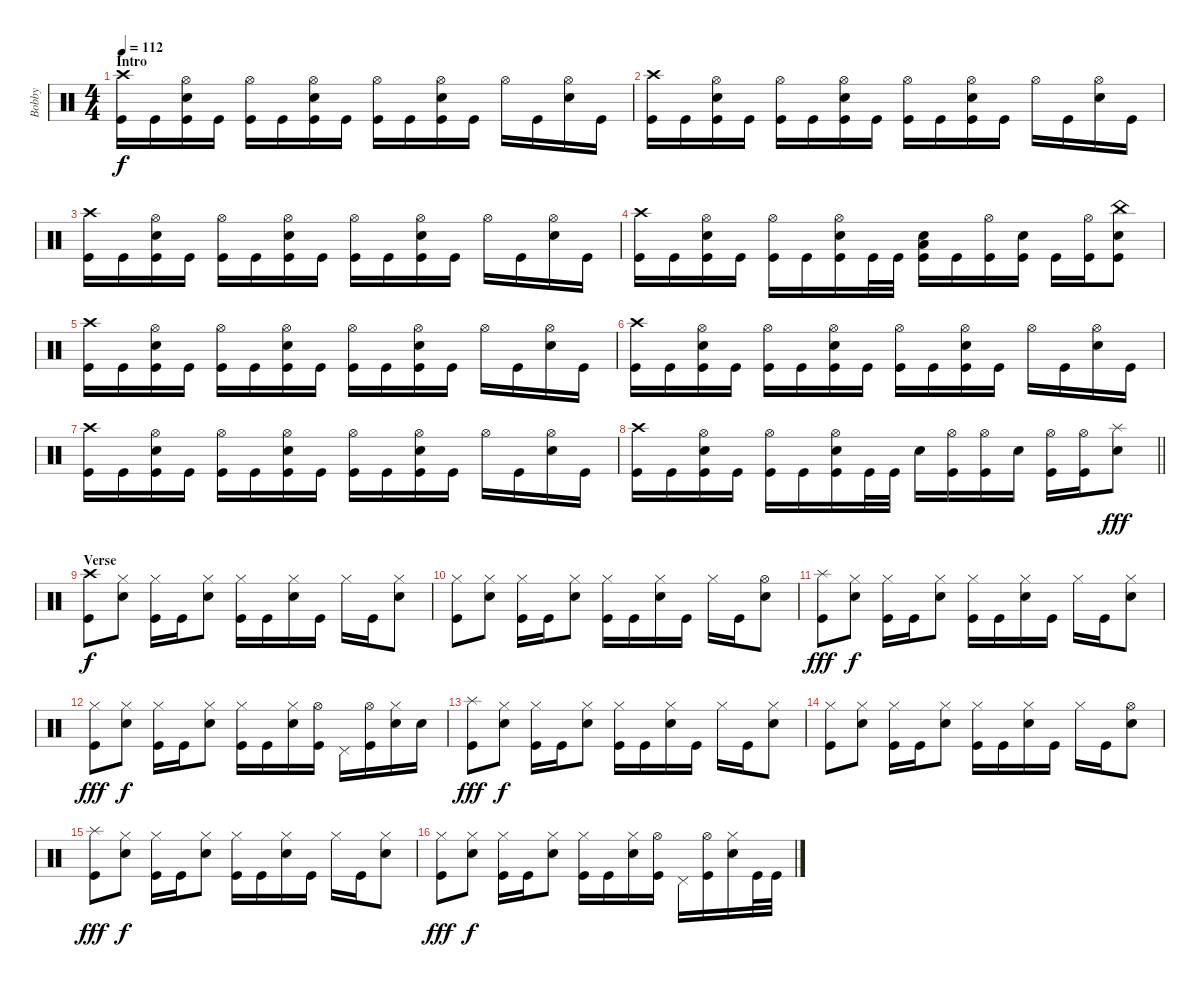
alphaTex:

\track ("Bobby" "Bobby") {instrument percussion}
\staff {score}
\articulation defaults
\ts (4 4)
\section ("" "Intro")
\tempo 112
\clef neutral
\ks c
("Crash high (hit)" "Kick (hit)").16{dy f} "Kick (hit)".16 ("Hi-Hat (open)" "Electric Snare (hit)" "Kick (hit)").16 "Kick (hit)".16 ("Hi-Hat (open)" "Kick (hit)").16 "Kick (hit)".16 ("Hi-Hat (open)" "Electric Snare (hit)" "Kick (hit)").16 "Kick (hit)".16 ("Hi-Hat (open)" "Kick (hit)").16 "Kick (hit)".16 ("Hi-Hat (open)" "Electric Snare (hit)" "Kick (hit)").16 "Kick (hit)".16 "Hi-Hat (open)".16 "Kick (hit)".16 ("Hi-Hat (open)" "Electric Snare (hit)").16 "Kick (hit)".16 |
("Crash high (hit)" "Kick (hit)").16 "Kick (hit)".16 ("Hi-Hat (open)" "Electric Snare (hit)" "Kick (hit)").16 "Kick (hit)".16 ("Hi-Hat (open)" "Kick (hit)").16 "Kick (hit)".16 ("Hi-Hat (open)" "Electric Snare (hit)" "Kick (hit)").16 "Kick (hit)".16 ("Hi-Hat (open)" "Kick (hit)").16 "Kick (hit)".16 ("Hi-Hat (open)" "Electric Snare (hit)" "Kick (hit)").16 "Kick (hit)".16 "Hi-Hat (open)".16 "Kick (hit)".16 ("Hi-Hat (open)" "Electric Snare (hit)").16 "Kick (hit)".16 |
("Crash high (hit)" "Kick (hit)").16 "Kick (hit)".16 ("Hi-Hat (open)" "Electric Snare (hit)" "Kick (hit)").16 "Kick (hit)".16 ("Hi-Hat (open)" "Kick (hit)").16 "Kick (hit)".16 ("Hi-Hat (open)" "Electric Snare (hit)" "Kick (hit)").16 "Kick (hit)".16 ("Hi-Hat (open)" "Kick (hit)").16 "Kick (hit)".16 ("Hi-Hat (open)" "Electric Snare (hit)" "Kick (hit)").16 "Kick (hit)".16 "Hi-Hat (open)".16 "Kick (hit)".16 ("Hi-Hat (open)" "Electric Snare (hit)").16 "Kick (hit)".16 |
("Crash high (hit)" "Kick (hit)").16 "Kick (hit)".16 ("Hi-Hat (open)" "Electric Snare (hit)" "Kick (hit)").16 "Kick (hit)".16 ("Hi-Hat (open)" "Kick (hit)").16 "Kick (hit)".16 ("Hi-Hat (open)" "Electric Snare (hit)" "Kick (hit)").16 "Kick (hit)".32 "Kick (hit)".32 ("Low Tom (hit)" "Electric Snare (hit)" "Kick (hit)").16 "Kick (hit)".16 ("Hi-Hat (open)" "Kick (hit)").16 ("Electric Snare (hit)" "Kick (hit)").16 "Kick (hit)".16 ("Hi-Hat (open)" "Kick (hit)").16 ("China (hit)" "Electric Snare (hit)" "Kick (hit)").8 |
("Crash high (hit)" "Kick (hit)").16 "Kick (hit)".16 ("Hi-Hat (open)" "Electric Snare (hit)" "Kick (hit)").16 "Kick (hit)".16 ("Hi-Hat (open)" "Kick (hit)").16 "Kick (hit)".16 ("Hi-Hat (open)" "Electric Snare (hit)" "Kick (hit)").16 "Kick (hit)".16 ("Hi-Hat (open)" "Kick (hit)").16 "Kick (hit)".16 ("Hi-Hat (open)" "Electric Snare (hit)" "Kick (hit)").16 "Kick (hit)".16 "Hi-Hat (open)".16 "Kick (hit)".16 ("Hi-Hat (open)" "Electric Snare (hit)").16 "Kick (hit)".16 |
("Crash high (hit)" "Kick (hit)").16 "Kick (hit)".16 ("Hi-Hat (open)" "Electric Snare (hit)" "Kick (hit)").16 "Kick (hit)".16 ("Hi-Hat (open)" "Kick (hit)").16 "Kick (hit)".16 ("Hi-Hat (open)" "Electric Snare (hit)" "Kick (hit)").16 "Kick (hit)".16 ("Hi-Hat (open)" "Kick (hit)").16 "Kick (hit)".16 ("Hi-Hat (open)" "Electric Snare (hit)" "Kick (hit)").16 "Kick (hit)".16 "Hi-Hat (open)".16 "Kick (hit)".16 ("Hi-Hat (open)" "Electric Snare (hit)").16 "Kick (hit)".16 |
("Crash high (hit)" "Kick (hit)").16 "Kick (hit)".16 ("Hi-Hat (open)" "Electric Snare (hit)" "Kick (hit)").16 "Kick (hit)".16 ("Hi-Hat (open)" "Kick (hit)").16 "Kick (hit)".16 ("Hi-Hat (open)" "Electric Snare (hit)" "Kick (hit)").16 "Kick (hit)".16 ("Hi-Hat (open)" "Kick (hit)").16 "Kick (hit)".16 ("Hi-Hat (open)" "Electric Snare (hit)" "Kick (hit)").16 "Kick (hit)".16 "Hi-Hat (open)".16 "Kick (hit)".16 ("Hi-Hat (open)" "Electric Snare (hit)").16 "Kick (hit)".16 |
\barLineRight lightlight
("Crash high (hit)" "Kick (hit)").16 "Kick (hit)".16 ("Hi-Hat (open)" "Electric Snare (hit)" "Kick (hit)").16 "Kick (hit)".16 ("Hi-Hat (open)" "Kick (hit)").16 "Kick (hit)".16 ("Hi-Hat (open)" "Electric Snare (hit)" "Kick (hit)").16 "Kick (hit)".32 "Kick (hit)".32 "Electric Snare (hit)".16 ("Hi-Hat (open)" "Kick (hit)").16 ("Hi-Hat (open)" "Kick (hit)").16 "Electric Snare (hit)".16 ("Hi-Hat (open)" "Kick (hit)").16 ("Hi-Hat (open)" "Kick (hit)").16 ("Splash (hit)" "Electric Snare (hit)").8{dy fff} |
\section ("" "Verse")
("Crash high (hit)" "Kick (hit)").8{dy f} ("Hi-Hat (closed)" "Electric Snare (hit)").8 ("Hi-Hat (closed)" "Kick (hit)").16 "Kick (hit)".16 ("Hi-Hat (closed)" "Electric Snare (hit)").8 ("Hi-Hat (closed)" "Kick (hit)").16 "Kick (hit)".16 ("Hi-Hat (closed)" "Electric Snare (hit)").16 "Kick (hit)".16 "Hi-Hat (closed)".16 "Kick (hit)".16 ("Hi-Hat (closed)" "Electric Snare (hit)").8 |
("Hi-Hat (closed)" "Kick (hit)").8 ("Hi-Hat (closed)" "Electric Snare (hit)").8 ("Hi-Hat (closed)" "Kick (hit)").16 "Kick (hit)".16 ("Hi-Hat (closed)" "Electric Snare (hit)").8 ("Hi-Hat (closed)" "Kick (hit)").16 "Kick (hit)".16 ("Hi-Hat (closed)" "Electric Snare (hit)").16 "Kick (hit)".16 "Hi-Hat (closed)".16 "Kick (hit)".16 ("Hi-Hat (open)" "Electric Snare (hit)").8 |
("Splash (hit)" "Kick (hit)").8{dy fff} ("Hi-Hat (closed)" "Electric Snare (hit)").8{dy f} ("Hi-Hat (closed)" "Kick (hit)").16 "Kick (hit)".16 ("Hi-Hat (closed)" "Electric Snare (hit)").8 ("Hi-Hat (closed)" "Kick (hit)").16 "Kick (hit)".16 ("Hi-Hat (closed)" "Electric Snare (hit)").16 "Kick (hit)".16 "Hi-Hat (closed)".16 "Kick (hit)".16 ("Hi-Hat (closed)" "Electric Snare (hit)").8 |
("Hi-Hat (closed)" "Kick (hit)").8{dy fff} ("Hi-Hat (closed)" "Electric Snare (hit)").8{dy f} ("Hi-Hat (closed)" "Kick (hit)").16 "Kick (hit)".16 ("Hi-Hat (closed)" "Electric Snare (hit)").8 ("Hi-Hat (closed)" "Kick (hit)").16 "Kick (hit)".16 ("Hi-Hat (closed)" "Electric Snare (hit)").16 ("Hi-Hat (open)" "Kick (hit)").16 "Pedal Hi-Hat (hit)".16 ("Hi-Hat (open)" "Kick (hit)").16 ("Hi-Hat (closed)" "Electric Snare (hit)").16 "Electric Snare (hit)".16 |
("Splash (hit)" "Kick (hit)").8{dy fff} ("Hi-Hat (closed)" "Electric Snare (hit)").8{dy f} ("Hi-Hat (closed)" "Kick (hit)").16 "Kick (hit)".16 ("Hi-Hat (closed)" "Electric Snare (hit)").8 ("Hi-Hat (closed)" "Kick (hit)").16 "Kick (hit)".16 ("Hi-Hat (closed)" "Electric Snare (hit)").16 "Kick (hit)".16 "Hi-Hat (closed)".16 "Kick (hit)".16 ("Hi-Hat (closed)" "Electric Snare (hit)").8 |
("Hi-Hat (closed)" "Kick (hit)").8 ("Hi-Hat (closed)" "Electric Snare (hit)").8 ("Hi-Hat (closed)" "Kick (hit)").16 "Kick (hit)".16 ("Hi-Hat (closed)" "Electric Snare (hit)").8 ("Hi-Hat (closed)" "Kick (hit)").16 "Kick (hit)".16 ("Hi-Hat (closed)" "Electric Snare (hit)").16 "Kick (hit)".16 "Hi-Hat (closed)".16 "Kick (hit)".16 ("Hi-Hat (open)" "Electric Snare (hit)").8 |
("Splash (hit)" "Kick (hit)").8{dy fff} ("Hi-Hat (closed)" "Electric Snare (hit)").8{dy f} ("Hi-Hat (closed)" "Kick (hit)").16 "Kick (hit)".16 ("Hi-Hat (closed)" "Electric Snare (hit)").8 ("Hi-Hat (closed)" "Kick (hit)").16 "Kick (hit)".16 ("Hi-Hat (closed)" "Electric Snare (hit)").16 "Kick (hit)".16 "Hi-Hat (closed)".16 "Kick (hit)".16 ("Hi-Hat (closed)" "Electric Snare (hit)").8 |
("Hi-Hat (closed)" "Kick (hit)").8{dy fff} ("Hi-Hat (closed)" "Electric Snare (hit)").8{dy f} ("Hi-Hat (closed)" "Kick (hit)").16 "Kick (hit)".16 ("Hi-Hat (closed)" "Electric Snare (hit)").8 ("Hi-Hat (closed)" "Kick (hit)").16 "Kick (hit)".16 ("Hi-Hat (closed)" "Electric Snare (hit)").16 ("Hi-Hat (open)" "Kick (hit)").16 "Pedal Hi-Hat (hit)".16 ("Hi-Hat (open)" "Kick (hit)").16 ("Hi-Hat (closed)" "Electric Snare (hit)").16 "Kick (hit)".32 "Kick (hit)".32
